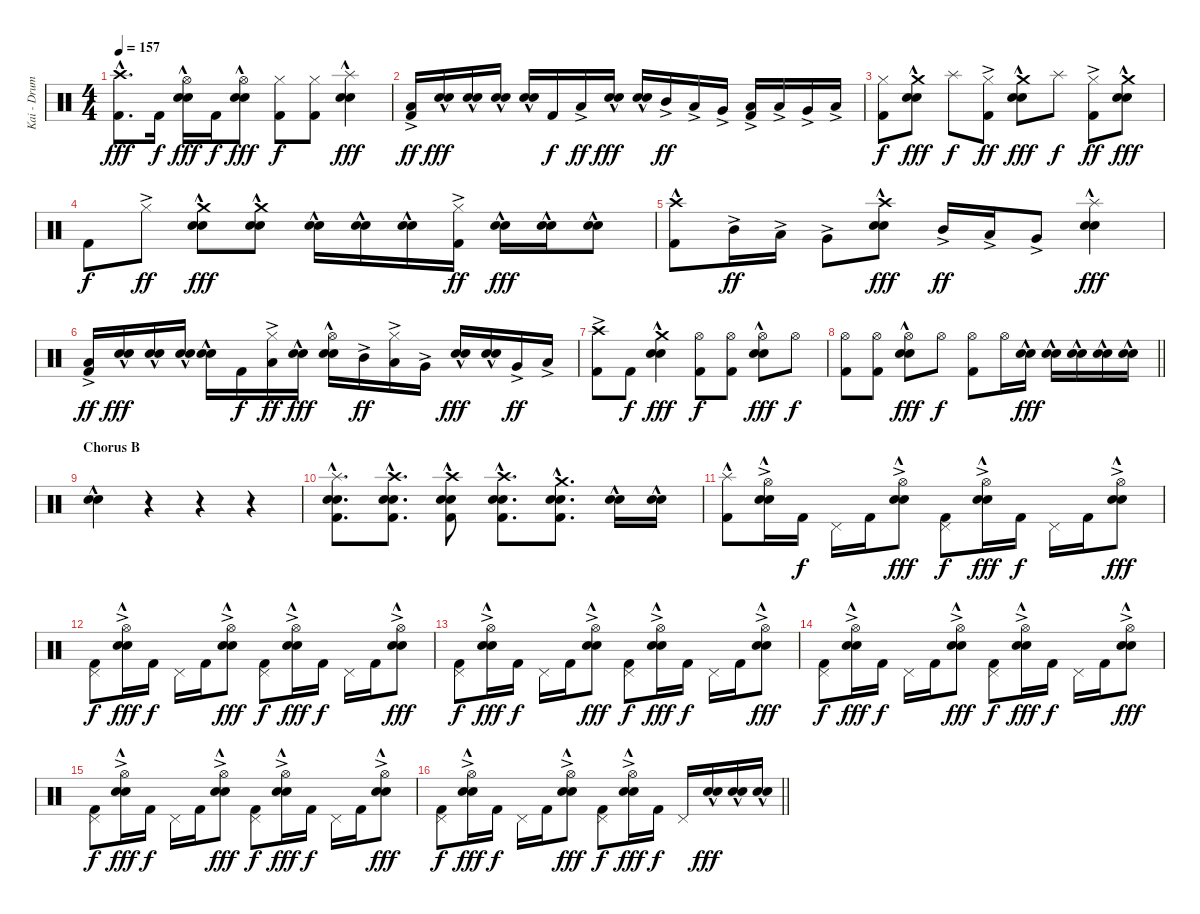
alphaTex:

\track ("Kai - Drums" "Kai - Drum") {instrument percussion}
\staff {score}
\articulation defaults
\ts (4 4)
\section ("" "")
\tempo 157
\clef neutral
\ks c
("Crash high (hit)"{hac} "Kick (hit) 2").8{d dy fff} "Kick (hit) 2".16{dy f} ("Hi-Hat (open)" "Electric Snare (hit)"{hac} "Snare (hit) 2").16{dy fff} "Kick (hit) 2".16{dy f} ("Hi-Hat (open)" "Electric Snare (hit)"{hac} "Snare (hit) 2").8{dy fff} ("Hi-Hat (closed)" "Kick (hit) 2").8{dy f} ("Hi-Hat (closed)" "Kick (hit) 2").8 ("Splash (hit)"{hac} "Electric Snare (hit)"{hac} "Snare (hit) 2").4{dy fff} |
("Low Tom (hit)"{ac} "Kick (hit) 2").16{dy ff} ("Electric Snare (hit)"{hac} "Snare (hit) 2").16{dy fff} ("Electric Snare (hit)"{hac} "Snare (hit) 2").16 ("Electric Snare (hit)"{hac} "Snare (hit) 2").16 ("Electric Snare (hit)"{hac} "Snare (hit) 2").16 "Kick (hit) 2".16{dy f} "Low Tom (hit)"{ac}.16{dy ff} ("Electric Snare (hit)"{hac} "Snare (hit) 2").16{dy fff} ("Electric Snare (hit)"{hac} "Snare (hit) 2").16 "Mid Tom (hit)"{ac}.16{dy ff} "Low Tom (hit)"{ac}.16 "Very Low Tom (hit)"{ac}.16 ("Low Tom (hit)"{ac} "Kick (hit) 2").16 "Low Tom (hit)"{ac}.16 "Very Low Tom (hit)"{ac}.16 "Low Floor Tom (hit)"{ac}.16 |
("Hi-Hat (closed)" "Kick (hit) 2").8{dy f} ("Crash medium (hit)" "Electric Snare (hit)"{hac} "Snare (hit) 2").8{dy fff} "Splash (hit)".8{dy f} ("Hi-Hat (closed)"{ac} "Kick (hit) 2").8{dy ff} ("Crash medium (hit)" "Electric Snare (hit)"{hac} "Snare (hit) 2").8{dy fff} "Splash (hit)".8{dy f} ("Hi-Hat (closed)"{ac} "Kick (hit) 2").8{dy ff} ("Crash medium (hit)" "Electric Snare (hit)"{hac} "Snare (hit) 2").8{dy fff} |
"Kick (hit) 2".8{dy f} "Hi-Hat (closed)"{ac}.8{dy ff} ("Crash medium (hit)" "Electric Snare (hit)"{hac} "Snare (hit) 2").8{dy fff} ("Crash medium (hit)" "Electric Snare (hit)"{hac} "Snare (hit) 2").8 ("Electric Snare (hit)"{hac} "Snare (hit) 2").16 ("Electric Snare (hit)"{hac} "Snare (hit) 2").16 ("Electric Snare (hit)"{hac} "Snare (hit) 2").16 ("Hi-Hat (closed)"{ac} "Kick (hit) 2").16{dy ff} ("Electric Snare (hit)"{hac} "Snare (hit) 2").16{dy fff} ("Electric Snare (hit)"{hac} "Snare (hit) 2").16 ("Electric Snare (hit)"{hac} "Snare (hit) 2").8 |
("Crash high (hit)"{hac} "Kick (hit) 2").8 "Mid Tom (hit)"{ac}.16{dy ff} "Low Tom (hit)"{ac}.16 "Very Low Tom (hit)"{ac}.8 ("Crash high (hit)"{hac} "Electric Snare (hit)"{hac} "Snare (hit) 2").8{dy fff} "Mid Tom (hit)"{ac}.16{dy ff} "Low Tom (hit)"{ac}.16 "Very Low Tom (hit)"{ac}.8 ("Splash (hit)"{hac} "Electric Snare (hit)"{hac} "Snare (hit) 2").4{dy fff} |
("Low Tom (hit)"{ac} "Kick (hit) 2").16{dy ff} ("Electric Snare (hit)"{hac} "Snare (hit) 2").16{dy fff} ("Electric Snare (hit)"{hac} "Snare (hit) 2").16 ("Electric Snare (hit)"{hac} "Snare (hit) 2").16 ("Electric Snare (hit)"{hac} "Snare (hit) 2").16 "Kick (hit) 2".16{dy f} ("Hi-Hat (closed)" "Low Tom (hit)"{ac}).16{dy ff} ("Electric Snare (hit)"{hac} "Snare (hit) 2").16{dy fff} ("Hi-Hat (open)" "Electric Snare (hit)"{hac} "Snare (hit) 2").16 "Mid Tom (hit)"{ac}.16{dy ff} ("Hi-Hat (closed)" "Low Tom (hit)"{ac}).16 "Very Low Tom (hit)"{ac}.16 ("Electric Snare (hit)"{hac} "Snare (hit) 2").16{dy fff} ("Electric Snare (hit)"{hac} "Snare (hit) 2").16 "Very Low Tom (hit)"{ac}.16{dy ff} "Low Floor Tom (hit)"{ac}.16 |
("Crash high (hit)"{ac} "Kick (hit) 2").8 "Kick (hit) 2".8{dy f} ("Crash medium (hit)"{hac} "Electric Snare (hit)"{hac} "Snare (hit) 2").4{dy fff} ("Hi-Hat (open)" "Kick (hit) 2").8{dy f} ("Hi-Hat (open)" "Kick (hit) 2").8 ("Hi-Hat (open)" "Electric Snare (hit)"{hac} "Snare (hit) 2").8{dy fff} "Hi-Hat (open)".8{dy f} |
\barLineRight lightlight
("Hi-Hat (open)" "Kick (hit) 2").8 ("Hi-Hat (open)" "Kick (hit) 2").8 ("Hi-Hat (open)" "Electric Snare (hit)"{hac} "Snare (hit) 2").8{dy fff} "Hi-Hat (open)".8{dy f} ("Hi-Hat (open)" "Kick (hit) 2").8 "Hi-Hat (open)".16 ("Electric Snare (hit)"{hac} "Snare (hit) 2").16{dy fff} ("Electric Snare (hit)"{hac} "Snare (hit) 2").16 ("Electric Snare (hit)"{hac} "Snare (hit) 2").16 ("Electric Snare (hit)"{hac} "Snare (hit) 2").16 ("Electric Snare (hit)"{hac} "Snare (hit) 2").16 |
\section ("" "Chorus B")
("Electric Snare (hit)"{hac} "Snare (hit) 2").4 r.4 r.4 r.4 |
("Splash (hit)"{hac} "Electric Snare (hit)"{hac} "Snare (hit) 2" "Kick (hit) 2").8{d} ("Crash high (hit)" "Electric Snare (hit)"{hac} "Snare (hit) 2" "Kick (hit) 2").8{d} ("Crash high (hit)" "Electric Snare (hit)"{hac} "Snare (hit) 2" "Kick (hit) 2").8 ("Crash high (hit)" "Electric Snare (hit)"{hac} "Snare (hit) 2" "Kick (hit) 2").8{d} ("Crash medium (hit)" "Electric Snare (hit)"{hac} "Snare (hit) 2" "Kick (hit) 2").8{d} ("Electric Snare (hit)"{hac} "Snare (hit) 2").16 ("Electric Snare (hit)"{hac} "Snare (hit) 2").16 |
("Splash (hit)"{hac} "Kick (hit) 2").8 ("Hi-Hat (open)"{ac} "Electric Snare (hit)"{hac} "Snare (hit) 2").16 "Kick (hit) 2".16{dy f} "Pedal Hi-Hat (hit)".16 "Kick (hit) 2".16 ("Hi-Hat (open)"{ac} "Electric Snare (hit)"{hac} "Snare (hit) 2").8{dy fff} ("Pedal Hi-Hat (hit)" "Kick (hit) 2").8{dy f} ("Hi-Hat (open)"{ac} "Electric Snare (hit)"{hac} "Snare (hit) 2").16{dy fff} "Kick (hit) 2".16{dy f} "Pedal Hi-Hat (hit)".16 "Kick (hit) 2".16 ("Hi-Hat (open)"{ac} "Electric Snare (hit)"{hac} "Snare (hit) 2").8{dy fff} |
("Pedal Hi-Hat (hit)" "Kick (hit) 2").8{dy f} ("Hi-Hat (open)"{ac} "Electric Snare (hit)"{hac} "Snare (hit) 2").16{dy fff} "Kick (hit) 2".16{dy f} "Pedal Hi-Hat (hit)".16 "Kick (hit) 2".16 ("Hi-Hat (open)"{ac} "Electric Snare (hit)"{hac} "Snare (hit) 2").8{dy fff} ("Pedal Hi-Hat (hit)" "Kick (hit) 2").8{dy f} ("Hi-Hat (open)"{ac} "Electric Snare (hit)"{hac} "Snare (hit) 2").16{dy fff} "Kick (hit) 2".16{dy f} "Pedal Hi-Hat (hit)".16 "Kick (hit) 2".16 ("Hi-Hat (open)"{ac} "Electric Snare (hit)"{hac} "Snare (hit) 2").8{dy fff} |
("Pedal Hi-Hat (hit)" "Kick (hit) 2").8{dy f} ("Hi-Hat (open)"{ac} "Electric Snare (hit)"{hac} "Snare (hit) 2").16{dy fff} "Kick (hit) 2".16{dy f} "Pedal Hi-Hat (hit)".16 "Kick (hit) 2".16 ("Hi-Hat (open)"{ac} "Electric Snare (hit)"{hac} "Snare (hit) 2").8{dy fff} ("Pedal Hi-Hat (hit)" "Kick (hit) 2").8{dy f} ("Hi-Hat (open)"{ac} "Electric Snare (hit)"{hac} "Snare (hit) 2").16{dy fff} "Kick (hit) 2".16{dy f} "Pedal Hi-Hat (hit)".16 "Kick (hit) 2".16 ("Hi-Hat (open)"{ac} "Electric Snare (hit)"{hac} "Snare (hit) 2").8{dy fff} |
("Pedal Hi-Hat (hit)" "Kick (hit) 2").8{dy f} ("Hi-Hat (open)"{ac} "Electric Snare (hit)"{hac} "Snare (hit) 2").16{dy fff} "Kick (hit) 2".16{dy f} "Pedal Hi-Hat (hit)".16 "Kick (hit) 2".16 ("Hi-Hat (open)"{ac} "Electric Snare (hit)"{hac} "Snare (hit) 2").8{dy fff} ("Pedal Hi-Hat (hit)" "Kick (hit) 2").8{dy f} ("Hi-Hat (open)"{ac} "Electric Snare (hit)"{hac} "Snare (hit) 2").16{dy fff} "Kick (hit) 2".16{dy f} "Pedal Hi-Hat (hit)".16 "Kick (hit) 2".16 ("Hi-Hat (open)"{ac} "Electric Snare (hit)"{hac} "Snare (hit) 2").8{dy fff} |
("Pedal Hi-Hat (hit)" "Kick (hit) 2").8{dy f} ("Hi-Hat (open)"{ac} "Electric Snare (hit)"{hac} "Snare (hit) 2").16{dy fff} "Kick (hit) 2".16{dy f} "Pedal Hi-Hat (hit)".16 "Kick (hit) 2".16 ("Hi-Hat (open)"{ac} "Electric Snare (hit)"{hac} "Snare (hit) 2").8{dy fff} ("Pedal Hi-Hat (hit)" "Kick (hit) 2").8{dy f} ("Hi-Hat (open)"{ac} "Electric Snare (hit)"{hac} "Snare (hit) 2").16{dy fff} "Kick (hit) 2".16{dy f} "Pedal Hi-Hat (hit)".16 "Kick (hit) 2".16 ("Hi-Hat (open)"{ac} "Electric Snare (hit)"{hac} "Snare (hit) 2").8{dy fff} |
\barLineRight lightlight
("Pedal Hi-Hat (hit)" "Kick (hit) 2").8{dy f} ("Hi-Hat (open)"{ac} "Electric Snare (hit)"{hac} "Snare (hit) 2").16{dy fff} "Kick (hit) 2".16{dy f} "Pedal Hi-Hat (hit)".16 "Kick (hit) 2".16 ("Hi-Hat (open)"{ac} "Electric Snare (hit)"{hac} "Snare (hit) 2").8{dy fff} ("Pedal Hi-Hat (hit)" "Kick (hit) 2").8{dy f} ("Hi-Hat (open)"{ac} "Electric Snare (hit)"{hac} "Snare (hit) 2").16{dy fff} "Kick (hit) 2".16{dy f} "Pedal Hi-Hat (hit)".16 ("Electric Snare (hit)"{hac} "Snare (hit) 2").16{dy fff} ("Electric Snare (hit)"{hac} "Snare (hit) 2").16 ("Electric Snare (hit)"{hac} "Snare (hit) 2").16
